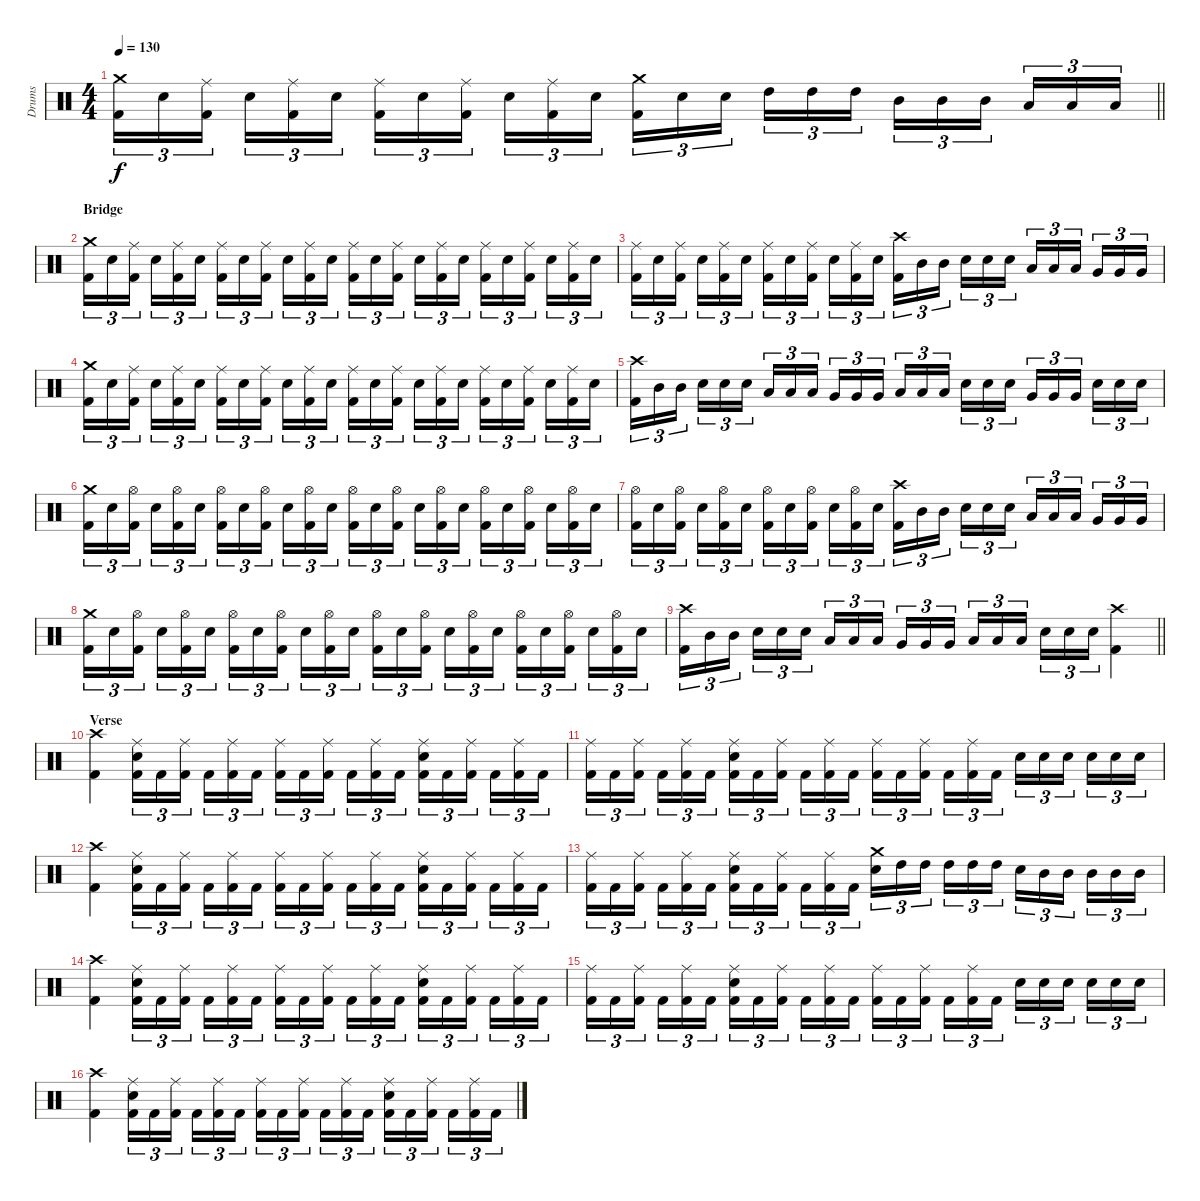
\track ("Drums" "Drums") {instrument percussion}
\staff {score}
\articulation defaults
\ts (4 4)
\tempo 130
\clef neutral
\barLineRight lightlight
\ks c
("Crash medium (hit)" "Kick (hit) 2").16{tu (3 2) dy f} "Electric Snare (hit)".16{tu (3 2)} ("Ride (middle)" "Kick (hit) 2").16{tu (3 2) beam splitsecondary} "Electric Snare (hit)".16{tu (3 2)} ("Ride (middle)" "Kick (hit) 2").16{tu (3 2)} "Electric Snare (hit)".16{tu (3 2)} ("Ride (middle)" "Kick (hit) 2").16{tu (3 2)} "Electric Snare (hit)".16{tu (3 2)} ("Ride (middle)" "Kick (hit) 2").16{tu (3 2) beam splitsecondary} "Electric Snare (hit)".16{tu (3 2)} ("Ride (middle)" "Kick (hit) 2").16{tu (3 2)} "Electric Snare (hit)".16{tu (3 2)} ("Crash medium (hit)" "Kick (hit) 2").16{tu (3 2)} "Electric Snare (hit)".16{tu (3 2)} "Electric Snare (hit)".16{tu (3 2) beam splitsecondary} "High Tom (hit)".16{tu (3 2)} "High Tom (hit)".16{tu (3 2)} "High Tom (hit)".16{tu (3 2)} "Mid Tom (hit)".16{tu (3 2)} "Mid Tom (hit)".16{tu (3 2)} "Mid Tom (hit)".16{tu (3 2) beam splitsecondary} "Low Tom (hit)".16{tu (3 2)} "Low Tom (hit)".16{tu (3 2)} "Low Tom (hit)".16{tu (3 2)} |
\section ("" "Bridge")
("Crash medium (hit)" "Kick (hit) 2").16{tu (3 2)} "Electric Snare (hit)".16{tu (3 2)} ("Ride (middle)" "Kick (hit) 2").16{tu (3 2) beam splitsecondary} "Electric Snare (hit)".16{tu (3 2)} ("Ride (middle)" "Kick (hit) 2").16{tu (3 2)} "Electric Snare (hit)".16{tu (3 2)} ("Ride (middle)" "Kick (hit) 2").16{tu (3 2)} "Electric Snare (hit)".16{tu (3 2)} ("Ride (middle)" "Kick (hit) 2").16{tu (3 2) beam splitsecondary} "Electric Snare (hit)".16{tu (3 2)} ("Ride (middle)" "Kick (hit) 2").16{tu (3 2)} "Electric Snare (hit)".16{tu (3 2)} ("Ride (middle)" "Kick (hit) 2").16{tu (3 2)} "Electric Snare (hit)".16{tu (3 2)} ("Ride (middle)" "Kick (hit) 2").16{tu (3 2) beam splitsecondary} "Electric Snare (hit)".16{tu (3 2)} ("Ride (middle)" "Kick (hit) 2").16{tu (3 2)} "Electric Snare (hit)".16{tu (3 2)} ("Ride (middle)" "Kick (hit) 2").16{tu (3 2)} "Electric Snare (hit)".16{tu (3 2)} ("Ride (middle)" "Kick (hit) 2").16{tu (3 2) beam splitsecondary} "Electric Snare (hit)".16{tu (3 2)} ("Ride (middle)" "Kick (hit) 2").16{tu (3 2)} "Electric Snare (hit)".16{tu (3 2)} |
("Ride (middle)" "Kick (hit) 2").16{tu (3 2)} "Electric Snare (hit)".16{tu (3 2)} ("Ride (middle)" "Kick (hit) 2").16{tu (3 2) beam splitsecondary} "Electric Snare (hit)".16{tu (3 2)} ("Ride (middle)" "Kick (hit) 2").16{tu (3 2)} "Electric Snare (hit)".16{tu (3 2)} ("Ride (middle)" "Kick (hit) 2").16{tu (3 2)} "Electric Snare (hit)".16{tu (3 2)} ("Ride (middle)" "Kick (hit) 2").16{tu (3 2) beam splitsecondary} "Electric Snare (hit)".16{tu (3 2)} ("Ride (middle)" "Kick (hit) 2").16{tu (3 2)} "Electric Snare (hit)".16{tu (3 2)} ("Crash high (hit)" "Kick (hit) 2").16{tu (3 2)} "Mid Tom (hit)".16{tu (3 2)} "Mid Tom (hit)".16{tu (3 2) beam splitsecondary} "Electric Snare (hit)".16{tu (3 2)} "Electric Snare (hit)".16{tu (3 2)} "Electric Snare (hit)".16{tu (3 2)} "Low Tom (hit)".16{tu (3 2)} "Low Tom (hit)".16{tu (3 2)} "Low Tom (hit)".16{tu (3 2) beam splitsecondary} "Very Low Tom (hit)".16{tu (3 2)} "Very Low Tom (hit)".16{tu (3 2)} "Very Low Tom (hit)".16{tu (3 2)} |
("Crash medium (hit)" "Kick (hit) 2").16{tu (3 2)} "Electric Snare (hit)".16{tu (3 2)} ("Ride (middle)" "Kick (hit) 2").16{tu (3 2) beam splitsecondary} "Electric Snare (hit)".16{tu (3 2)} ("Ride (middle)" "Kick (hit) 2").16{tu (3 2)} "Electric Snare (hit)".16{tu (3 2)} ("Ride (middle)" "Kick (hit) 2").16{tu (3 2)} "Electric Snare (hit)".16{tu (3 2)} ("Ride (middle)" "Kick (hit) 2").16{tu (3 2) beam splitsecondary} "Electric Snare (hit)".16{tu (3 2)} ("Ride (middle)" "Kick (hit) 2").16{tu (3 2)} "Electric Snare (hit)".16{tu (3 2)} ("Ride (middle)" "Kick (hit) 2").16{tu (3 2)} "Electric Snare (hit)".16{tu (3 2)} ("Ride (middle)" "Kick (hit) 2").16{tu (3 2) beam splitsecondary} "Electric Snare (hit)".16{tu (3 2)} ("Ride (middle)" "Kick (hit) 2").16{tu (3 2)} "Electric Snare (hit)".16{tu (3 2)} ("Ride (middle)" "Kick (hit) 2").16{tu (3 2)} "Electric Snare (hit)".16{tu (3 2)} ("Ride (middle)" "Kick (hit) 2").16{tu (3 2) beam splitsecondary} "Electric Snare (hit)".16{tu (3 2)} ("Ride (middle)" "Kick (hit) 2").16{tu (3 2)} "Electric Snare (hit)".16{tu (3 2)} |
("Crash high (hit)" "Kick (hit) 2").16{tu (3 2)} "Mid Tom (hit)".16{tu (3 2)} "Mid Tom (hit)".16{tu (3 2) beam splitsecondary} "Electric Snare (hit)".16{tu (3 2)} "Electric Snare (hit)".16{tu (3 2)} "Electric Snare (hit)".16{tu (3 2)} "Low Tom (hit)".16{tu (3 2)} "Low Tom (hit)".16{tu (3 2)} "Low Tom (hit)".16{tu (3 2) beam splitsecondary} "Very Low Tom (hit)".16{tu (3 2)} "Very Low Tom (hit)".16{tu (3 2)} "Very Low Tom (hit)".16{tu (3 2)} "Low Floor Tom (hit)".16{tu (3 2)} "Low Floor Tom (hit)".16{tu (3 2)} "Low Floor Tom (hit)".16{tu (3 2) beam splitsecondary} "Electric Snare (hit)".16{tu (3 2)} "Electric Snare (hit)".16{tu (3 2)} "Electric Snare (hit)".16{tu (3 2)} "Very Low Tom (hit)".16{tu (3 2)} "Very Low Tom (hit)".16{tu (3 2)} "Very Low Tom (hit)".16{tu (3 2) beam splitsecondary} "Electric Snare (hit)".16{tu (3 2)} "Electric Snare (hit)".16{tu (3 2)} "Electric Snare (hit)".16{tu (3 2)} |
("Crash medium (hit)" "Kick (hit) 2").16{tu (3 2)} "Electric Snare (hit)".16{tu (3 2)} ("Hi-Hat (open)" "Kick (hit) 2").16{tu (3 2) beam splitsecondary} "Electric Snare (hit)".16{tu (3 2)} ("Hi-Hat (open)" "Kick (hit) 2").16{tu (3 2)} "Electric Snare (hit)".16{tu (3 2)} ("Hi-Hat (open)" "Kick (hit) 2").16{tu (3 2)} "Electric Snare (hit)".16{tu (3 2)} ("Hi-Hat (open)" "Kick (hit) 2").16{tu (3 2) beam splitsecondary} "Electric Snare (hit)".16{tu (3 2)} ("Hi-Hat (open)" "Kick (hit) 2").16{tu (3 2)} "Electric Snare (hit)".16{tu (3 2)} ("Hi-Hat (open)" "Kick (hit) 2").16{tu (3 2)} "Electric Snare (hit)".16{tu (3 2)} ("Hi-Hat (open)" "Kick (hit) 2").16{tu (3 2) beam splitsecondary} "Electric Snare (hit)".16{tu (3 2)} ("Hi-Hat (open)" "Kick (hit) 2").16{tu (3 2)} "Electric Snare (hit)".16{tu (3 2)} ("Hi-Hat (open)" "Kick (hit) 2").16{tu (3 2)} "Electric Snare (hit)".16{tu (3 2)} ("Hi-Hat (open)" "Kick (hit) 2").16{tu (3 2) beam splitsecondary} "Electric Snare (hit)".16{tu (3 2)} ("Hi-Hat (open)" "Kick (hit) 2").16{tu (3 2)} "Electric Snare (hit)".16{tu (3 2)} |
("Hi-Hat (open)" "Kick (hit) 2").16{tu (3 2)} "Electric Snare (hit)".16{tu (3 2)} ("Hi-Hat (open)" "Kick (hit) 2").16{tu (3 2) beam splitsecondary} "Electric Snare (hit)".16{tu (3 2)} ("Hi-Hat (open)" "Kick (hit) 2").16{tu (3 2)} "Electric Snare (hit)".16{tu (3 2)} ("Hi-Hat (open)" "Kick (hit) 2").16{tu (3 2)} "Electric Snare (hit)".16{tu (3 2)} ("Hi-Hat (open)" "Kick (hit) 2").16{tu (3 2) beam splitsecondary} "Electric Snare (hit)".16{tu (3 2)} ("Hi-Hat (open)" "Kick (hit) 2").16{tu (3 2)} "Electric Snare (hit)".16{tu (3 2)} ("Crash high (hit)" "Kick (hit) 2").16{tu (3 2)} "Mid Tom (hit)".16{tu (3 2)} "Mid Tom (hit)".16{tu (3 2) beam splitsecondary} "Electric Snare (hit)".16{tu (3 2)} "Electric Snare (hit)".16{tu (3 2)} "Electric Snare (hit)".16{tu (3 2)} "Low Tom (hit)".16{tu (3 2)} "Low Tom (hit)".16{tu (3 2)} "Low Tom (hit)".16{tu (3 2) beam splitsecondary} "Very Low Tom (hit)".16{tu (3 2)} "Very Low Tom (hit)".16{tu (3 2)} "Very Low Tom (hit)".16{tu (3 2)} |
("Crash medium (hit)" "Kick (hit) 2").16{tu (3 2)} "Electric Snare (hit)".16{tu (3 2)} ("Hi-Hat (open)" "Kick (hit) 2").16{tu (3 2) beam splitsecondary} "Electric Snare (hit)".16{tu (3 2)} ("Hi-Hat (open)" "Kick (hit) 2").16{tu (3 2)} "Electric Snare (hit)".16{tu (3 2)} ("Hi-Hat (open)" "Kick (hit) 2").16{tu (3 2)} "Electric Snare (hit)".16{tu (3 2)} ("Hi-Hat (open)" "Kick (hit) 2").16{tu (3 2) beam splitsecondary} "Electric Snare (hit)".16{tu (3 2)} ("Hi-Hat (open)" "Kick (hit) 2").16{tu (3 2)} "Electric Snare (hit)".16{tu (3 2)} ("Hi-Hat (open)" "Kick (hit) 2").16{tu (3 2)} "Electric Snare (hit)".16{tu (3 2)} ("Hi-Hat (open)" "Kick (hit) 2").16{tu (3 2) beam splitsecondary} "Electric Snare (hit)".16{tu (3 2)} ("Hi-Hat (open)" "Kick (hit) 2").16{tu (3 2)} "Electric Snare (hit)".16{tu (3 2)} ("Hi-Hat (open)" "Kick (hit) 2").16{tu (3 2)} "Electric Snare (hit)".16{tu (3 2)} ("Hi-Hat (open)" "Kick (hit) 2").16{tu (3 2) beam splitsecondary} "Electric Snare (hit)".16{tu (3 2)} ("Hi-Hat (open)" "Kick (hit) 2").16{tu (3 2)} "Electric Snare (hit)".16{tu (3 2)} |
\barLineRight lightlight
("Crash high (hit)" "Kick (hit) 2").16{tu (3 2)} "Mid Tom (hit)".16{tu (3 2)} "Mid Tom (hit)".16{tu (3 2) beam splitsecondary} "Electric Snare (hit)".16{tu (3 2)} "Electric Snare (hit)".16{tu (3 2)} "Electric Snare (hit)".16{tu (3 2)} "Low Tom (hit)".16{tu (3 2)} "Low Tom (hit)".16{tu (3 2)} "Low Tom (hit)".16{tu (3 2) beam splitsecondary} "Very Low Tom (hit)".16{tu (3 2)} "Very Low Tom (hit)".16{tu (3 2)} "Very Low Tom (hit)".16{tu (3 2)} "Low Floor Tom (hit)".16{tu (3 2)} "Low Floor Tom (hit)".16{tu (3 2)} "Low Floor Tom (hit)".16{tu (3 2) beam splitsecondary} "Electric Snare (hit)".16{tu (3 2)} "Electric Snare (hit)".16{tu (3 2)} "Electric Snare (hit)".16{tu (3 2)} ("Crash high (hit)" "Kick (hit) 2").4 |
\section ("" "Verse")
("Crash high (hit)" "Kick (hit) 2").4 ("Ride (middle)" "Electric Snare (hit)" "Kick (hit) 2").16{tu (3 2)} "Kick (hit) 2".16{tu (3 2)} ("Ride (middle)" "Kick (hit) 2").16{tu (3 2) beam splitsecondary} "Kick (hit) 2".16{tu (3 2)} ("Ride (middle)" "Kick (hit) 2").16{tu (3 2)} "Kick (hit) 2".16{tu (3 2)} ("Ride (middle)" "Kick (hit) 2").16{tu (3 2)} "Kick (hit) 2".16{tu (3 2)} ("Ride (middle)" "Kick (hit) 2").16{tu (3 2) beam splitsecondary} "Kick (hit) 2".16{tu (3 2)} ("Ride (middle)" "Kick (hit) 2").16{tu (3 2)} "Kick (hit) 2".16{tu (3 2)} ("Ride (middle)" "Electric Snare (hit)" "Kick (hit) 2").16{tu (3 2)} "Kick (hit) 2".16{tu (3 2)} ("Ride (middle)" "Kick (hit) 2").16{tu (3 2) beam splitsecondary} "Kick (hit) 2".16{tu (3 2)} ("Ride (middle)" "Kick (hit) 2").16{tu (3 2)} "Kick (hit) 2".16{tu (3 2)} |
("Ride (middle)" "Kick (hit) 2").16{tu (3 2)} "Kick (hit) 2".16{tu (3 2)} ("Ride (middle)" "Kick (hit) 2").16{tu (3 2) beam splitsecondary} "Kick (hit) 2".16{tu (3 2)} ("Ride (middle)" "Kick (hit) 2").16{tu (3 2)} "Kick (hit) 2".16{tu (3 2)} ("Ride (middle)" "Electric Snare (hit)" "Kick (hit) 2").16{tu (3 2)} "Kick (hit) 2".16{tu (3 2)} ("Ride (middle)" "Kick (hit) 2").16{tu (3 2) beam splitsecondary} "Kick (hit) 2".16{tu (3 2)} ("Ride (middle)" "Kick (hit) 2").16{tu (3 2)} "Kick (hit) 2".16{tu (3 2)} ("Ride (middle)" "Kick (hit) 2").16{tu (3 2)} "Kick (hit) 2".16{tu (3 2)} ("Ride (middle)" "Kick (hit) 2").16{tu (3 2) beam splitsecondary} "Kick (hit) 2".16{tu (3 2)} ("Ride (middle)" "Kick (hit) 2").16{tu (3 2)} "Kick (hit) 2".16{tu (3 2)} "Electric Snare (hit)".16{tu (3 2)} "Electric Snare (hit)".16{tu (3 2)} "Electric Snare (hit)".16{tu (3 2) beam splitsecondary} "Electric Snare (hit)".16{tu (3 2)} "Electric Snare (hit)".16{tu (3 2)} "Electric Snare (hit)".16{tu (3 2)} |
("Crash high (hit)" "Kick (hit) 2").4 ("Ride (middle)" "Electric Snare (hit)" "Kick (hit) 2").16{tu (3 2)} "Kick (hit) 2".16{tu (3 2)} ("Ride (middle)" "Kick (hit) 2").16{tu (3 2) beam splitsecondary} "Kick (hit) 2".16{tu (3 2)} ("Ride (middle)" "Kick (hit) 2").16{tu (3 2)} "Kick (hit) 2".16{tu (3 2)} ("Ride (middle)" "Kick (hit) 2").16{tu (3 2)} "Kick (hit) 2".16{tu (3 2)} ("Ride (middle)" "Kick (hit) 2").16{tu (3 2) beam splitsecondary} "Kick (hit) 2".16{tu (3 2)} ("Ride (middle)" "Kick (hit) 2").16{tu (3 2)} "Kick (hit) 2".16{tu (3 2)} ("Ride (middle)" "Electric Snare (hit)" "Kick (hit) 2").16{tu (3 2)} "Kick (hit) 2".16{tu (3 2)} ("Ride (middle)" "Kick (hit) 2").16{tu (3 2) beam splitsecondary} "Kick (hit) 2".16{tu (3 2)} ("Ride (middle)" "Kick (hit) 2").16{tu (3 2)} "Kick (hit) 2".16{tu (3 2)} |
("Ride (middle)" "Kick (hit) 2").16{tu (3 2)} "Kick (hit) 2".16{tu (3 2)} ("Ride (middle)" "Kick (hit) 2").16{tu (3 2) beam splitsecondary} "Kick (hit) 2".16{tu (3 2)} ("Ride (middle)" "Kick (hit) 2").16{tu (3 2)} "Kick (hit) 2".16{tu (3 2)} ("Ride (middle)" "Electric Snare (hit)" "Kick (hit) 2").16{tu (3 2)} "Kick (hit) 2".16{tu (3 2)} ("Ride (middle)" "Kick (hit) 2").16{tu (3 2) beam splitsecondary} "Kick (hit) 2".16{tu (3 2)} ("Ride (middle)" "Kick (hit) 2").16{tu (3 2)} "Kick (hit) 2".16{tu (3 2)} ("Crash medium (hit)" "Electric Snare (hit)").16{tu (3 2)} "High Tom (hit)".16{tu (3 2)} "High Tom (hit)".16{tu (3 2) beam splitsecondary} "High Tom (hit)".16{tu (3 2)} "High Tom (hit)".16{tu (3 2)} "High Tom (hit)".16{tu (3 2)} "Electric Snare (hit)".16{tu (3 2)} "Mid Tom (hit)".16{tu (3 2)} "Mid Tom (hit)".16{tu (3 2) beam splitsecondary} "Mid Tom (hit)".16{tu (3 2)} "Mid Tom (hit)".16{tu (3 2)} "Mid Tom (hit)".16{tu (3 2)} |
("Crash high (hit)" "Kick (hit) 2").4 ("Ride (middle)" "Electric Snare (hit)" "Kick (hit) 2").16{tu (3 2)} "Kick (hit) 2".16{tu (3 2)} ("Ride (middle)" "Kick (hit) 2").16{tu (3 2) beam splitsecondary} "Kick (hit) 2".16{tu (3 2)} ("Ride (middle)" "Kick (hit) 2").16{tu (3 2)} "Kick (hit) 2".16{tu (3 2)} ("Ride (middle)" "Kick (hit) 2").16{tu (3 2)} "Kick (hit) 2".16{tu (3 2)} ("Ride (middle)" "Kick (hit) 2").16{tu (3 2) beam splitsecondary} "Kick (hit) 2".16{tu (3 2)} ("Ride (middle)" "Kick (hit) 2").16{tu (3 2)} "Kick (hit) 2".16{tu (3 2)} ("Ride (middle)" "Electric Snare (hit)" "Kick (hit) 2").16{tu (3 2)} "Kick (hit) 2".16{tu (3 2)} ("Ride (middle)" "Kick (hit) 2").16{tu (3 2) beam splitsecondary} "Kick (hit) 2".16{tu (3 2)} ("Ride (middle)" "Kick (hit) 2").16{tu (3 2)} "Kick (hit) 2".16{tu (3 2)} |
("Ride (middle)" "Kick (hit) 2").16{tu (3 2)} "Kick (hit) 2".16{tu (3 2)} ("Ride (middle)" "Kick (hit) 2").16{tu (3 2) beam splitsecondary} "Kick (hit) 2".16{tu (3 2)} ("Ride (middle)" "Kick (hit) 2").16{tu (3 2)} "Kick (hit) 2".16{tu (3 2)} ("Ride (middle)" "Electric Snare (hit)" "Kick (hit) 2").16{tu (3 2)} "Kick (hit) 2".16{tu (3 2)} ("Ride (middle)" "Kick (hit) 2").16{tu (3 2) beam splitsecondary} "Kick (hit) 2".16{tu (3 2)} ("Ride (middle)" "Kick (hit) 2").16{tu (3 2)} "Kick (hit) 2".16{tu (3 2)} ("Ride (middle)" "Kick (hit) 2").16{tu (3 2)} "Kick (hit) 2".16{tu (3 2)} ("Ride (middle)" "Kick (hit) 2").16{tu (3 2) beam splitsecondary} "Kick (hit) 2".16{tu (3 2)} ("Ride (middle)" "Kick (hit) 2").16{tu (3 2)} "Kick (hit) 2".16{tu (3 2)} "Electric Snare (hit)".16{tu (3 2)} "Electric Snare (hit)".16{tu (3 2)} "Electric Snare (hit)".16{tu (3 2) beam splitsecondary} "Electric Snare (hit)".16{tu (3 2)} "Electric Snare (hit)".16{tu (3 2)} "Electric Snare (hit)".16{tu (3 2)} |
("Crash high (hit)" "Kick (hit) 2").4 ("Ride (middle)" "Electric Snare (hit)" "Kick (hit) 2").16{tu (3 2)} "Kick (hit) 2".16{tu (3 2)} ("Ride (middle)" "Kick (hit) 2").16{tu (3 2) beam splitsecondary} "Kick (hit) 2".16{tu (3 2)} ("Ride (middle)" "Kick (hit) 2").16{tu (3 2)} "Kick (hit) 2".16{tu (3 2)} ("Ride (middle)" "Kick (hit) 2").16{tu (3 2)} "Kick (hit) 2".16{tu (3 2)} ("Ride (middle)" "Kick (hit) 2").16{tu (3 2) beam splitsecondary} "Kick (hit) 2".16{tu (3 2)} ("Ride (middle)" "Kick (hit) 2").16{tu (3 2)} "Kick (hit) 2".16{tu (3 2)} ("Ride (middle)" "Electric Snare (hit)" "Kick (hit) 2").16{tu (3 2)} "Kick (hit) 2".16{tu (3 2)} ("Ride (middle)" "Kick (hit) 2").16{tu (3 2) beam splitsecondary} "Kick (hit) 2".16{tu (3 2)} ("Ride (middle)" "Kick (hit) 2").16{tu (3 2)} "Kick (hit) 2".16{tu (3 2)}
